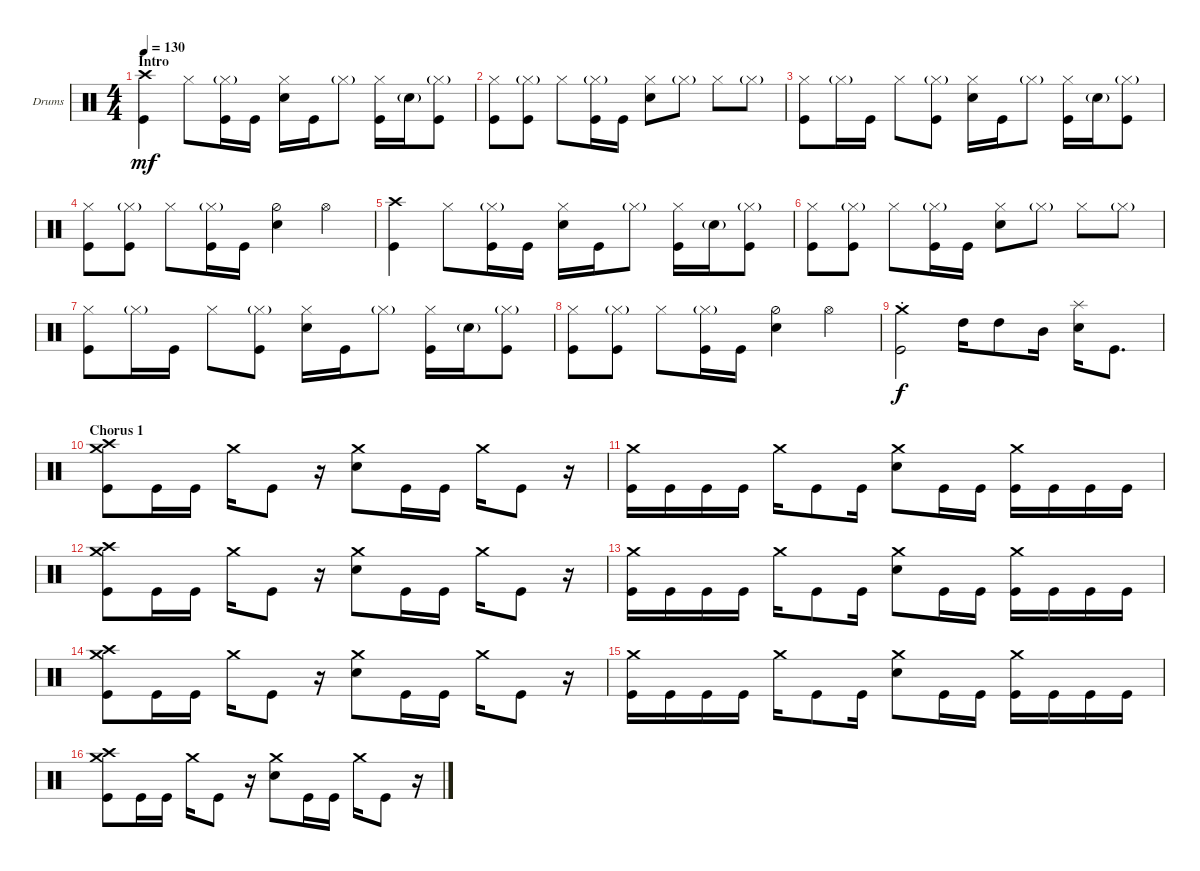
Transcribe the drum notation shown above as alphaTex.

\bracketExtendMode groupsimilarinstruments
\firstSystemTrackNameOrientation horizontal
\otherSystemsTrackNameOrientation horizontal
\track ("Drumkit" "Drums") {instrument percussion}
\staff {score}
\articulation defaults
\ts (4 4)
\section ("" "Intro")
\tempo 130
\clef neutral
\ks c
("Kick (hit)" "Crash high (hit)").4{dy mf} "Hi-Hat (closed)".8 ("Kick (hit)" "Hi-Hat (closed)"{g}).16 "Kick (hit)".16 ("Snare (hit) 2" "Hi-Hat (closed)").16 "Kick (hit)".16 "Hi-Hat (closed)"{g}.8 ("Kick (hit)" "Hi-Hat (closed)").16 "Snare (hit) 2"{g}.16 ("Kick (hit)" "Hi-Hat (closed)"{g}).8 |
("Hi-Hat (closed)" "Kick (hit)").8 ("Hi-Hat (closed)"{g} "Kick (hit)").8 "Hi-Hat (closed)".8 ("Kick (hit)" "Hi-Hat (closed)"{g}).16 "Kick (hit)".16 ("Snare (hit) 2" "Hi-Hat (closed)").8 "Hi-Hat (closed)"{g}.8 "Hi-Hat (closed)".8 "Hi-Hat (closed)"{g}.8 |
("Kick (hit)" "Hi-Hat (closed)").8 "Hi-Hat (closed)"{g}.16 "Kick (hit)".16 "Hi-Hat (closed)".8 ("Kick (hit)" "Hi-Hat (closed)"{g}).8 ("Snare (hit) 2" "Hi-Hat (closed)").16 "Kick (hit)".16 "Hi-Hat (closed)"{g}.8 ("Kick (hit)" "Hi-Hat (closed)").16 "Snare (hit) 2"{g}.16 ("Kick (hit)" "Hi-Hat (closed)"{g}).8 |
("Hi-Hat (closed)" "Kick (hit)").8 ("Hi-Hat (closed)"{g} "Kick (hit)").8 "Hi-Hat (closed)".8 ("Kick (hit)" "Hi-Hat (closed)"{g}).16 "Kick (hit)".16 ("Snare (hit) 2" "Hi-Hat (half)").4 "Hi-Hat (open)".4 |
("Kick (hit)" "Crash high (hit)").4 "Hi-Hat (closed)".8 ("Kick (hit)" "Hi-Hat (closed)"{g}).16 "Kick (hit)".16 ("Snare (hit) 2" "Hi-Hat (closed)").16 "Kick (hit)".16 "Hi-Hat (closed)"{g}.8 ("Kick (hit)" "Hi-Hat (closed)").16 "Snare (hit) 2"{g}.16 ("Kick (hit)" "Hi-Hat (closed)"{g}).8 |
("Hi-Hat (closed)" "Kick (hit)").8 ("Hi-Hat (closed)"{g} "Kick (hit)").8 "Hi-Hat (closed)".8 ("Kick (hit)" "Hi-Hat (closed)"{g}).16 "Kick (hit)".16 ("Snare (hit) 2" "Hi-Hat (closed)").8 "Hi-Hat (closed)"{g}.8 "Hi-Hat (closed)".8 "Hi-Hat (closed)"{g}.8 |
("Kick (hit)" "Hi-Hat (closed)").8 "Hi-Hat (closed)"{g}.16 "Kick (hit)".16 "Hi-Hat (closed)".8 ("Kick (hit)" "Hi-Hat (closed)"{g}).8 ("Snare (hit) 2" "Hi-Hat (closed)").16 "Kick (hit)".16 "Hi-Hat (closed)"{g}.8 ("Kick (hit)" "Hi-Hat (closed)").16 "Snare (hit) 2"{g}.16 ("Kick (hit)" "Hi-Hat (closed)"{g}).8 |
("Hi-Hat (closed)" "Kick (hit)").8 ("Hi-Hat (closed)"{g} "Kick (hit)").8 "Hi-Hat (closed)".8 ("Kick (hit)" "Hi-Hat (closed)"{g}).16 "Kick (hit)".16 ("Snare (hit) 2" "Hi-Hat (half)").4 "Hi-Hat (open)".4 |
("Crash medium (hit)"{st} "Kick (hit)").2{dy f} "High Tom (hit)".16 "High Tom (hit)".8 "Mid Tom (hit)".16 ("Snare (hit) 2" "Splash (hit)").16 "Kick (hit)".8{d} |
\section ("" "Chorus 1")
("Kick (hit)" "Crash high (hit)" "Crash medium (hit)").8 "Kick (hit)".16 "Kick (hit)".16 "Crash medium (hit)".16 "Kick (hit)".8 r.16 ("Crash medium (hit)" "Snare (hit) 2").8 "Kick (hit)".16 "Kick (hit)".16 "Crash medium (hit)".16 "Kick (hit)".8 r.16 |
("Kick (hit)" "Crash medium (hit)").16 "Kick (hit)".16 "Kick (hit)".16 "Kick (hit)".16 "Crash medium (hit)".16 "Kick (hit)".8 "Kick (hit)".16 ("Snare (hit) 2" "Crash medium (hit)").8 "Kick (hit)".16 "Kick (hit)".16 ("Kick (hit)" "Crash medium (hit)").16 "Kick (hit)".16 "Kick (hit)".16 "Kick (hit)".16 |
("Kick (hit)" "Crash high (hit)" "Crash medium (hit)").8 "Kick (hit)".16 "Kick (hit)".16 "Crash medium (hit)".16 "Kick (hit)".8 r.16 ("Crash medium (hit)" "Snare (hit) 2").8 "Kick (hit)".16 "Kick (hit)".16 "Crash medium (hit)".16 "Kick (hit)".8 r.16 |
("Kick (hit)" "Crash medium (hit)").16 "Kick (hit)".16 "Kick (hit)".16 "Kick (hit)".16 "Crash medium (hit)".16 "Kick (hit)".8 "Kick (hit)".16 ("Snare (hit) 2" "Crash medium (hit)").8 "Kick (hit)".16 "Kick (hit)".16 ("Kick (hit)" "Crash medium (hit)").16 "Kick (hit)".16 "Kick (hit)".16 "Kick (hit)".16 |
("Kick (hit)" "Crash high (hit)" "Crash medium (hit)").8 "Kick (hit)".16 "Kick (hit)".16 "Crash medium (hit)".16 "Kick (hit)".8 r.16 ("Crash medium (hit)" "Snare (hit) 2").8 "Kick (hit)".16 "Kick (hit)".16 "Crash medium (hit)".16 "Kick (hit)".8 r.16 |
("Kick (hit)" "Crash medium (hit)").16 "Kick (hit)".16 "Kick (hit)".16 "Kick (hit)".16 "Crash medium (hit)".16 "Kick (hit)".8 "Kick (hit)".16 ("Snare (hit) 2" "Crash medium (hit)").8 "Kick (hit)".16 "Kick (hit)".16 ("Kick (hit)" "Crash medium (hit)").16 "Kick (hit)".16 "Kick (hit)".16 "Kick (hit)".16 |
("Kick (hit)" "Crash high (hit)" "Crash medium (hit)").8 "Kick (hit)".16 "Kick (hit)".16 "Crash medium (hit)".16 "Kick (hit)".8 r.16 ("Crash medium (hit)" "Snare (hit) 2").8 "Kick (hit)".16 "Kick (hit)".16 "Crash medium (hit)".16 "Kick (hit)".8 r.16
